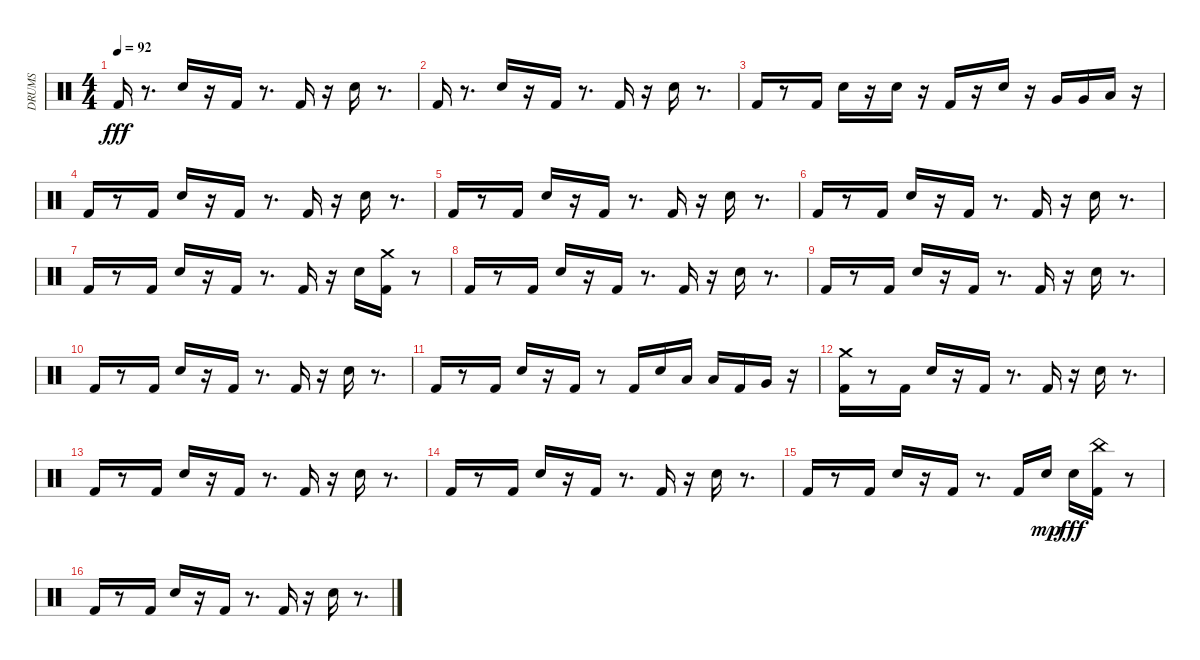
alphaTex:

\track ("DRUMS" "DRUMS") {instrument percussion}
\staff {score}
\articulation defaults
\ts (4 4)
\tempo 92
\clef neutral
\ks c "Kick (hit) 2".16{dy fff}
r.8{d} "Electric Snare (hit)".16 r.16 "Kick (hit) 2".16 r.8{d} "Kick (hit) 2".16 r.16 "Electric Snare (hit)".16 r.8{d} |
"Kick (hit) 2".16 r.8{d} "Electric Snare (hit)".16 r.16 "Kick (hit) 2".16 r.8{d} "Kick (hit) 2".16 r.16 "Electric Snare (hit)".16 r.8{d} |
"Kick (hit) 2".16 r.8 "Kick (hit) 2".16 "Electric Snare (hit)".16 r.16 "Electric Snare (hit)".16 r.16 "Kick (hit) 2".16 r.16 "Electric Snare (hit)".16 r.16 "Very Low Tom (hit)".16 "Very Low Tom (hit)".16 "Low Floor Tom (hit)".16 r.16 |
"Kick (hit) 2".16 r.8 "Kick (hit) 2".16 "Electric Snare (hit)".16 r.16 "Kick (hit) 2".16 r.8{d} "Kick (hit) 2".16 r.16 "Electric Snare (hit)".16 r.8{d} |
"Kick (hit) 2".16 r.8 "Kick (hit) 2".16 "Electric Snare (hit)".16 r.16 "Kick (hit) 2".16 r.8{d} "Kick (hit) 2".16 r.16 "Electric Snare (hit)".16 r.8{d} |
"Kick (hit) 2".16 r.8 "Kick (hit) 2".16 "Electric Snare (hit)".16 r.16 "Kick (hit) 2".16 r.8{d} "Kick (hit) 2".16 r.16 "Electric Snare (hit)".16 r.8{d} |
"Kick (hit) 2".16 r.8 "Kick (hit) 2".16 "Electric Snare (hit)".16 r.16 "Kick (hit) 2".16 r.8{d} "Kick (hit) 2".16 r.16 "Electric Snare (hit)".16 ("Kick (hit) 2" "Crash medium (hit)").16 r.8 |
"Kick (hit) 2".16 r.8 "Kick (hit) 2".16 "Electric Snare (hit)".16 r.16 "Kick (hit) 2".16 r.8{d} "Kick (hit) 2".16 r.16 "Electric Snare (hit)".16 r.8{d} |
"Kick (hit) 2".16 r.8 "Kick (hit) 2".16 "Electric Snare (hit)".16 r.16 "Kick (hit) 2".16 r.8{d} "Kick (hit) 2".16 r.16 "Electric Snare (hit)".16 r.8{d} |
"Kick (hit) 2".16 r.8 "Kick (hit) 2".16 "Electric Snare (hit)".16 r.16 "Kick (hit) 2".16 r.8{d} "Kick (hit) 2".16 r.16 "Electric Snare (hit)".16 r.8{d} |
"Kick (hit) 2".16 r.8 "Kick (hit) 2".16 "Electric Snare (hit)".16 r.16 "Kick (hit) 2".16 r.8 "Kick (hit) 2".16 "Electric Snare (hit)".16 "Low Floor Tom (hit)".16 "Low Tom (hit)".16 "Kick (hit) 2".16 "Very Low Tom (hit)".16 r.16 |
("Kick (hit) 2" "Crash medium (hit)").16 r.8 "Kick (hit) 2".16 "Electric Snare (hit)".16 r.16 "Kick (hit) 2".16 r.8{d} "Kick (hit) 2".16 r.16 "Electric Snare (hit)".16 r.8{d} |
"Kick (hit) 2".16 r.8 "Kick (hit) 2".16 "Electric Snare (hit)".16 r.16 "Kick (hit) 2".16 r.8{d} "Kick (hit) 2".16 r.16 "Electric Snare (hit)".16 r.8{d} |
"Kick (hit) 2".16 r.8 "Kick (hit) 2".16 "Electric Snare (hit)".16 r.16 "Kick (hit) 2".16 r.8{d} "Kick (hit) 2".16 r.16 "Electric Snare (hit)".16 r.8{d} |
"Kick (hit) 2".16 r.8 "Kick (hit) 2".16 "Electric Snare (hit)".16 r.16 "Kick (hit) 2".16 r.8{d} "Kick (hit) 2".16 "Electric Snare (hit)".16{dy mp} "Electric Snare (hit)".16{dy fff} ("Kick (hit) 2" "China (hit)").16 r.8 |
"Kick (hit) 2".16 r.8 "Kick (hit) 2".16 "Electric Snare (hit)".16 r.16 "Kick (hit) 2".16 r.8{d} "Kick (hit) 2".16 r.16 "Electric Snare (hit)".16 r.8{d}
